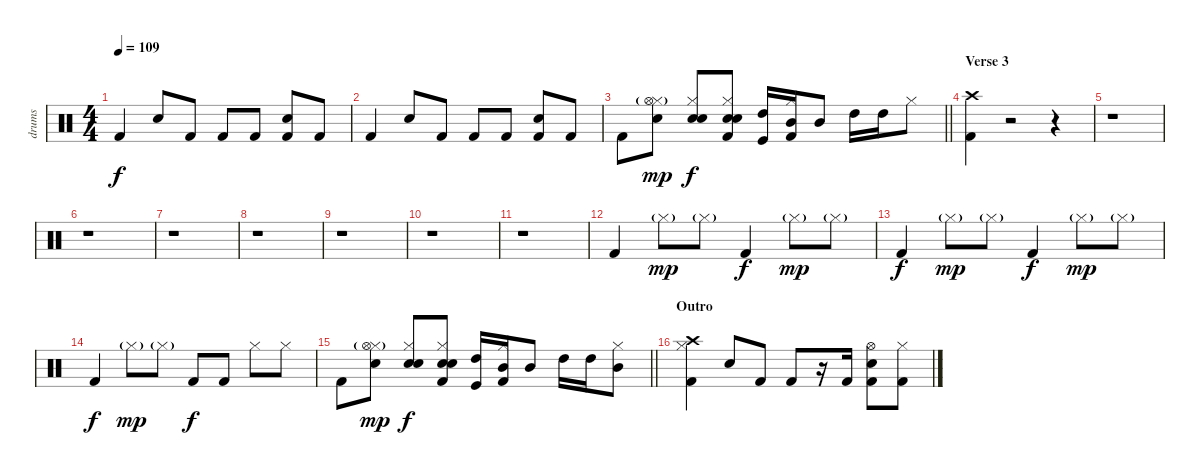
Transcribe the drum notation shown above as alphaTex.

\track ("drums" "drums") {instrument percussion}
\staff {score}
\articulation defaults
\ts (4 4)
\tempo 109
\clef neutral
\ks c "Kick (hit) 2".4{dy f} "Snare (hit) 2".8 "Kick (hit) 2".8 "Kick (hit) 2".8 "Kick (hit) 2".8
("Snare (hit) 2" "Kick (hit) 2").8 "Kick (hit) 2".8 |
"Kick (hit) 2".4 "Snare (hit) 2".8 "Kick (hit) 2".8 "Kick (hit) 2".8 "Kick (hit) 2".8 ("Snare (hit) 2" "Kick (hit) 2").8 "Kick (hit) 2".8 |
\barLineRight lightlight "Kick (hit) 2".8
("Hi-Hat (closed)" "Hi-Hat (open)"{g} "Snare (hit) 2").8{dy mp} ("Hi-Hat (closed)" "Snare (hit) 2" "Electric Snare (hit)").8{dy f} ("Hi-Hat (closed)" "Kick (hit) 2" "Snare (hit) 2" "Electric Snare (hit)").8 ("Kick (hit)" "High Tom (hit)").16 ("Hi-Hat (closed)" "Kick (hit) 2" "Mid Tom (hit)").16 "Mid Tom (hit)".8 "High Tom (hit)".16 "High Tom (hit)".16 "Hi-Hat (closed)".8 |
\section ("" "Verse 3")
("Kick (hit) 2" "Crash high (hit)").4 r.2 r.4 |
r.1 |
r.1 |
r.1 |
r.1 |
r.1 |
r.1 |
r.1 |
"Kick (hit) 2".4 "Hi-Hat (closed)"{g}.8{dy mp} "Hi-Hat (closed)"{g}.8 "Kick (hit) 2".4{dy f} "Hi-Hat (closed)"{g}.8{dy mp} "Hi-Hat (closed)"{g}.8 |
"Kick (hit) 2".4{dy f} "Hi-Hat (closed)"{g}.8{dy mp} "Hi-Hat (closed)"{g}.8 "Kick (hit) 2".4{dy f} "Hi-Hat (closed)"{g}.8{dy mp} "Hi-Hat (closed)"{g}.8 |
"Kick (hit) 2".4{dy f} "Hi-Hat (closed)"{g}.8{dy mp} "Hi-Hat (closed)"{g}.8 "Kick (hit) 2".8{dy f} "Kick (hit) 2".8 "Hi-Hat (closed)".8 "Hi-Hat (closed)".8 |
\barLineRight lightlight "Kick (hit) 2".8
("Hi-Hat (closed)" "Hi-Hat (open)"{g} "Snare (hit) 2").8{dy mp} ("Hi-Hat (closed)" "Snare (hit) 2" "Electric Snare (hit)").8{dy f} ("Hi-Hat (closed)" "Kick (hit) 2" "Snare (hit) 2" "Electric Snare (hit)").8 ("Kick (hit)" "High Tom (hit)").16 ("Hi-Hat (closed)" "Kick (hit) 2" "Mid Tom (hit)").16 "Mid Tom (hit)".8 "High Tom (hit)".16 "High Tom (hit)".16 ("Hi-Hat (closed)" "Mid Tom (hit)").8 |
\section ("" "Outro")
("Hi-Hat (closed)" "Kick (hit) 2" "Crash high (hit)").4 "Snare (hit) 2".8 "Kick (hit) 2".8 "Kick (hit) 2".8 r.16 "Kick (hit) 2".16 ("Snare (hit) 2" "Kick (hit) 2" "Hi-Hat (open)").8 ("Hi-Hat (closed)" "Kick (hit) 2").8
